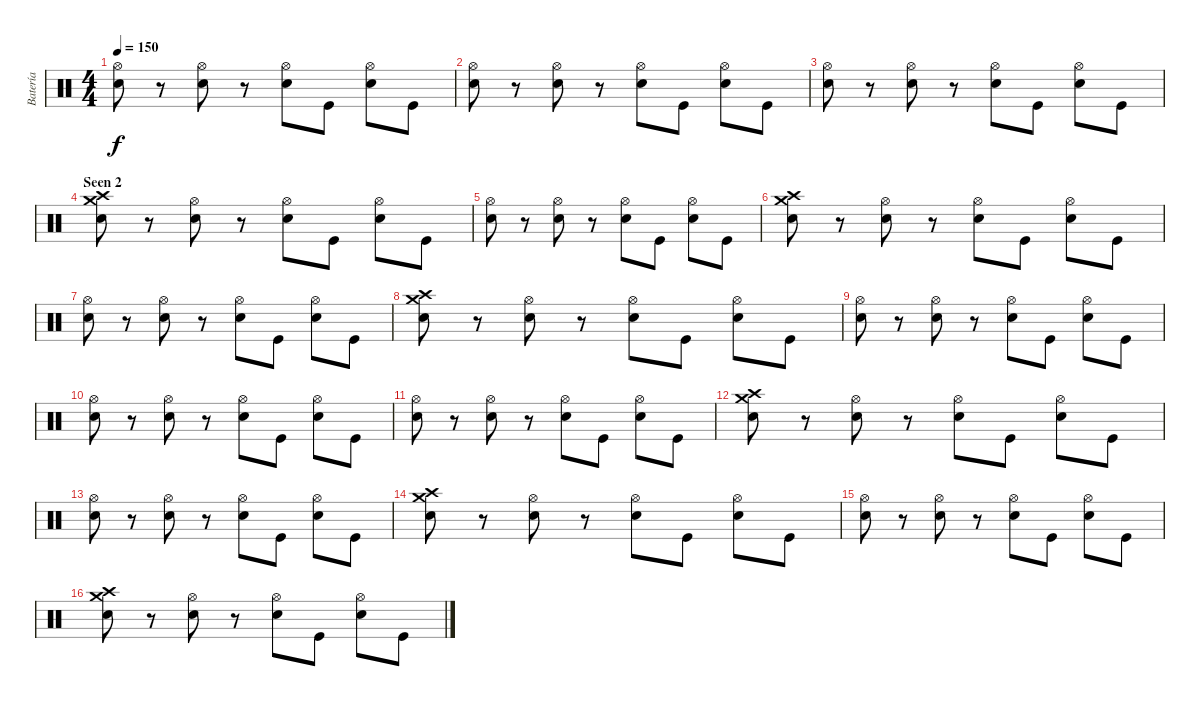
\track ("Batería" "Batería") {instrument percussion}
\staff {score}
\articulation defaults
\ts (4 4)
\tempo 150
\clef neutral
\ks c
("Hi-Hat (open)" "Snare (hit) 2").8{dy f} r.8 ("Hi-Hat (open)" "Snare (hit) 2").8 r.8 ("Hi-Hat (open)" "Snare (hit) 2").8 "Kick (hit)".8 ("Hi-Hat (open)" "Snare (hit) 2").8 "Kick (hit)".8 |
("Hi-Hat (open)" "Snare (hit) 2").8 r.8 ("Hi-Hat (open)" "Snare (hit) 2").8 r.8 ("Hi-Hat (open)" "Snare (hit) 2").8 "Kick (hit)".8 ("Hi-Hat (open)" "Snare (hit) 2").8 "Kick (hit)".8 |
("Hi-Hat (open)" "Snare (hit) 2").8 r.8 ("Hi-Hat (open)" "Snare (hit) 2").8 r.8 ("Hi-Hat (open)" "Snare (hit) 2").8 "Kick (hit)".8 ("Hi-Hat (open)" "Snare (hit) 2").8 "Kick (hit)".8 |
\section ("" "Seen 2")
("Crash high (hit)" "Snare (hit) 2" "Crash medium (hit)").8 r.8 ("Hi-Hat (open)" "Snare (hit) 2").8 r.8 ("Hi-Hat (open)" "Snare (hit) 2").8 "Kick (hit)".8 ("Hi-Hat (open)" "Snare (hit) 2").8 "Kick (hit)".8 |
("Hi-Hat (open)" "Snare (hit) 2").8 r.8 ("Hi-Hat (open)" "Snare (hit) 2").8 r.8 ("Hi-Hat (open)" "Snare (hit) 2").8 "Kick (hit)".8 ("Hi-Hat (open)" "Snare (hit) 2").8 "Kick (hit)".8 |
("Crash high (hit)" "Snare (hit) 2" "Crash medium (hit)").8 r.8 ("Hi-Hat (open)" "Snare (hit) 2").8 r.8 ("Hi-Hat (open)" "Snare (hit) 2").8 "Kick (hit)".8 ("Hi-Hat (open)" "Snare (hit) 2").8 "Kick (hit)".8 |
("Hi-Hat (open)" "Snare (hit) 2").8 r.8 ("Hi-Hat (open)" "Snare (hit) 2").8 r.8 ("Hi-Hat (open)" "Snare (hit) 2").8 "Kick (hit)".8 ("Hi-Hat (open)" "Snare (hit) 2").8 "Kick (hit)".8 |
("Crash high (hit)" "Snare (hit) 2" "Crash medium (hit)").8 r.8 ("Hi-Hat (open)" "Snare (hit) 2").8 r.8 ("Hi-Hat (open)" "Snare (hit) 2").8 "Kick (hit)".8 ("Hi-Hat (open)" "Snare (hit) 2").8 "Kick (hit)".8 |
("Hi-Hat (open)" "Snare (hit) 2").8 r.8 ("Hi-Hat (open)" "Snare (hit) 2").8 r.8 ("Hi-Hat (open)" "Snare (hit) 2").8 "Kick (hit)".8 ("Hi-Hat (open)" "Snare (hit) 2").8 "Kick (hit)".8 |
("Hi-Hat (open)" "Snare (hit) 2").8 r.8 ("Hi-Hat (open)" "Snare (hit) 2").8 r.8 ("Hi-Hat (open)" "Snare (hit) 2").8 "Kick (hit)".8 ("Hi-Hat (open)" "Snare (hit) 2").8 "Kick (hit)".8 |
("Hi-Hat (open)" "Snare (hit) 2").8 r.8 ("Hi-Hat (open)" "Snare (hit) 2").8 r.8 ("Hi-Hat (open)" "Snare (hit) 2").8 "Kick (hit)".8 ("Hi-Hat (open)" "Snare (hit) 2").8 "Kick (hit)".8 |
("Crash high (hit)" "Snare (hit) 2" "Crash medium (hit)").8 r.8 ("Hi-Hat (open)" "Snare (hit) 2").8 r.8 ("Hi-Hat (open)" "Snare (hit) 2").8 "Kick (hit)".8 ("Hi-Hat (open)" "Snare (hit) 2").8 "Kick (hit)".8 |
("Hi-Hat (open)" "Snare (hit) 2").8 r.8 ("Hi-Hat (open)" "Snare (hit) 2").8 r.8 ("Hi-Hat (open)" "Snare (hit) 2").8 "Kick (hit)".8 ("Hi-Hat (open)" "Snare (hit) 2").8 "Kick (hit)".8 |
("Crash high (hit)" "Snare (hit) 2" "Crash medium (hit)").8 r.8 ("Hi-Hat (open)" "Snare (hit) 2").8 r.8 ("Hi-Hat (open)" "Snare (hit) 2").8 "Kick (hit)".8 ("Hi-Hat (open)" "Snare (hit) 2").8 "Kick (hit)".8 |
("Hi-Hat (open)" "Snare (hit) 2").8 r.8 ("Hi-Hat (open)" "Snare (hit) 2").8 r.8 ("Hi-Hat (open)" "Snare (hit) 2").8 "Kick (hit)".8 ("Hi-Hat (open)" "Snare (hit) 2").8 "Kick (hit)".8 |
("Crash high (hit)" "Snare (hit) 2" "Crash medium (hit)").8 r.8 ("Hi-Hat (open)" "Snare (hit) 2").8 r.8 ("Hi-Hat (open)" "Snare (hit) 2").8 "Kick (hit)".8 ("Hi-Hat (open)" "Snare (hit) 2").8 "Kick (hit)".8
